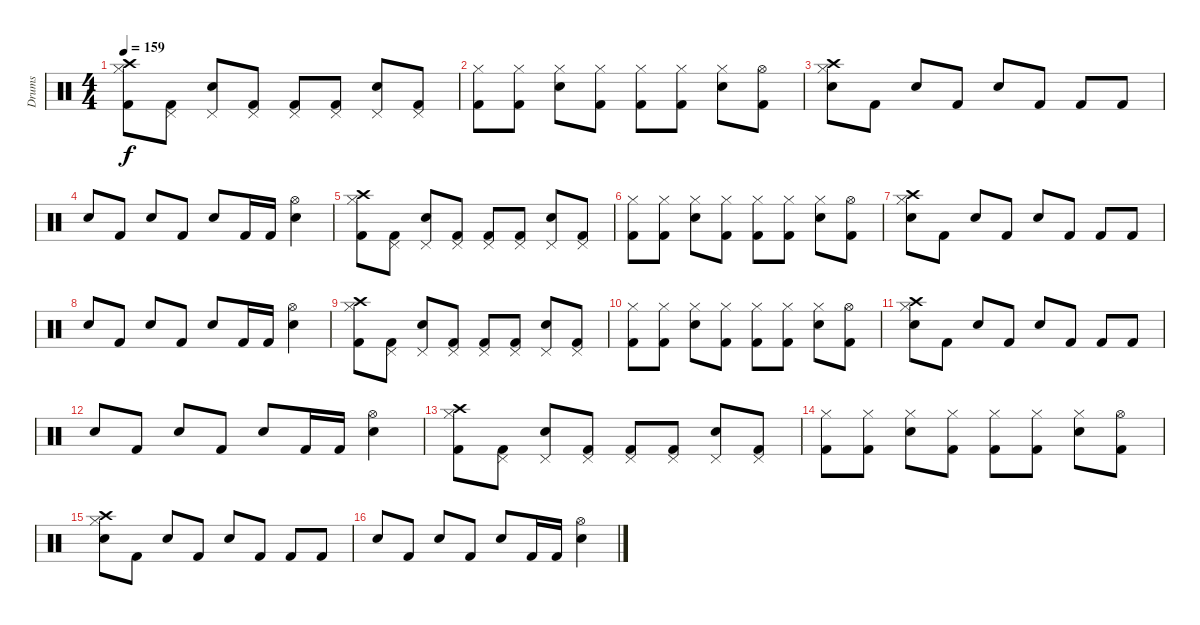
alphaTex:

\track ("Drums" "Drums") {instrument percussion}
\staff {score}
\articulation defaults
\ts (4 4)
\tempo 159
\clef neutral
\ks c
("Crash high (hit)" "Hi-Hat (closed)" "Kick (hit) 2").8{dy f} ("Pedal Hi-Hat (hit)" "Kick (hit) 2").8 ("Pedal Hi-Hat (hit)" "Snare (hit) 2").8 ("Pedal Hi-Hat (hit)" "Kick (hit) 2").8 ("Pedal Hi-Hat (hit)" "Kick (hit) 2").8 ("Pedal Hi-Hat (hit)" "Kick (hit) 2").8 ("Pedal Hi-Hat (hit)" "Snare (hit) 2").8 ("Pedal Hi-Hat (hit)" "Kick (hit) 2").8 |
("Hi-Hat (closed)" "Kick (hit) 2").8 ("Hi-Hat (closed)" "Kick (hit) 2").8 ("Hi-Hat (closed)" "Snare (hit) 2").8 ("Hi-Hat (closed)" "Kick (hit) 2").8 ("Hi-Hat (closed)" "Kick (hit) 2").8 ("Hi-Hat (closed)" "Kick (hit) 2").8 ("Hi-Hat (closed)" "Snare (hit) 2").8 ("Hi-Hat (open)" "Kick (hit) 2").8 |
("Crash high (hit)" "Hi-Hat (closed)" "Snare (hit) 2").8 "Kick (hit) 2".8 "Snare (hit) 2".8 "Kick (hit) 2".8 "Snare (hit) 2".8 "Kick (hit) 2".8 "Kick (hit) 2".8 "Kick (hit) 2".8 |
"Snare (hit) 2".8 "Kick (hit) 2".8 "Snare (hit) 2".8 "Kick (hit) 2".8 "Snare (hit) 2".8 "Kick (hit) 2".16 "Kick (hit) 2".16 ("Hi-Hat (open)" "Snare (hit) 2").4 |
("Crash high (hit)" "Hi-Hat (closed)" "Kick (hit) 2").8 ("Pedal Hi-Hat (hit)" "Kick (hit) 2").8 ("Pedal Hi-Hat (hit)" "Snare (hit) 2").8 ("Pedal Hi-Hat (hit)" "Kick (hit) 2").8 ("Pedal Hi-Hat (hit)" "Kick (hit) 2").8 ("Pedal Hi-Hat (hit)" "Kick (hit) 2").8 ("Pedal Hi-Hat (hit)" "Snare (hit) 2").8 ("Pedal Hi-Hat (hit)" "Kick (hit) 2").8 |
("Hi-Hat (closed)" "Kick (hit) 2").8 ("Hi-Hat (closed)" "Kick (hit) 2").8 ("Hi-Hat (closed)" "Snare (hit) 2").8 ("Hi-Hat (closed)" "Kick (hit) 2").8 ("Hi-Hat (closed)" "Kick (hit) 2").8 ("Hi-Hat (closed)" "Kick (hit) 2").8 ("Hi-Hat (closed)" "Snare (hit) 2").8 ("Hi-Hat (open)" "Kick (hit) 2").8 |
("Crash high (hit)" "Hi-Hat (closed)" "Snare (hit) 2").8 "Kick (hit) 2".8 "Snare (hit) 2".8 "Kick (hit) 2".8 "Snare (hit) 2".8 "Kick (hit) 2".8 "Kick (hit) 2".8 "Kick (hit) 2".8 |
"Snare (hit) 2".8 "Kick (hit) 2".8 "Snare (hit) 2".8 "Kick (hit) 2".8 "Snare (hit) 2".8 "Kick (hit) 2".16 "Kick (hit) 2".16 ("Hi-Hat (open)" "Snare (hit) 2").4 |
("Crash high (hit)" "Hi-Hat (closed)" "Kick (hit) 2").8 ("Pedal Hi-Hat (hit)" "Kick (hit) 2").8 ("Pedal Hi-Hat (hit)" "Snare (hit) 2").8 ("Pedal Hi-Hat (hit)" "Kick (hit) 2").8 ("Pedal Hi-Hat (hit)" "Kick (hit) 2").8 ("Pedal Hi-Hat (hit)" "Kick (hit) 2").8 ("Pedal Hi-Hat (hit)" "Snare (hit) 2").8 ("Pedal Hi-Hat (hit)" "Kick (hit) 2").8 |
("Hi-Hat (closed)" "Kick (hit) 2").8 ("Hi-Hat (closed)" "Kick (hit) 2").8 ("Hi-Hat (closed)" "Snare (hit) 2").8 ("Hi-Hat (closed)" "Kick (hit) 2").8 ("Hi-Hat (closed)" "Kick (hit) 2").8 ("Hi-Hat (closed)" "Kick (hit) 2").8 ("Hi-Hat (closed)" "Snare (hit) 2").8 ("Hi-Hat (open)" "Kick (hit) 2").8 |
("Crash high (hit)" "Hi-Hat (closed)" "Snare (hit) 2").8 "Kick (hit) 2".8 "Snare (hit) 2".8 "Kick (hit) 2".8 "Snare (hit) 2".8 "Kick (hit) 2".8 "Kick (hit) 2".8 "Kick (hit) 2".8 |
"Snare (hit) 2".8 "Kick (hit) 2".8 "Snare (hit) 2".8 "Kick (hit) 2".8 "Snare (hit) 2".8 "Kick (hit) 2".16 "Kick (hit) 2".16 ("Hi-Hat (open)" "Snare (hit) 2").4 |
("Crash high (hit)" "Hi-Hat (closed)" "Kick (hit) 2").8 ("Pedal Hi-Hat (hit)" "Kick (hit) 2").8 ("Pedal Hi-Hat (hit)" "Snare (hit) 2").8 ("Pedal Hi-Hat (hit)" "Kick (hit) 2").8 ("Pedal Hi-Hat (hit)" "Kick (hit) 2").8 ("Pedal Hi-Hat (hit)" "Kick (hit) 2").8 ("Pedal Hi-Hat (hit)" "Snare (hit) 2").8 ("Pedal Hi-Hat (hit)" "Kick (hit) 2").8 |
("Hi-Hat (closed)" "Kick (hit) 2").8 ("Hi-Hat (closed)" "Kick (hit) 2").8 ("Hi-Hat (closed)" "Snare (hit) 2").8 ("Hi-Hat (closed)" "Kick (hit) 2").8 ("Hi-Hat (closed)" "Kick (hit) 2").8 ("Hi-Hat (closed)" "Kick (hit) 2").8 ("Hi-Hat (closed)" "Snare (hit) 2").8 ("Hi-Hat (open)" "Kick (hit) 2").8 |
("Crash high (hit)" "Hi-Hat (closed)" "Snare (hit) 2").8 "Kick (hit) 2".8 "Snare (hit) 2".8 "Kick (hit) 2".8 "Snare (hit) 2".8 "Kick (hit) 2".8 "Kick (hit) 2".8 "Kick (hit) 2".8 |
"Snare (hit) 2".8 "Kick (hit) 2".8 "Snare (hit) 2".8 "Kick (hit) 2".8 "Snare (hit) 2".8 "Kick (hit) 2".16 "Kick (hit) 2".16 ("Hi-Hat (open)" "Snare (hit) 2").4
